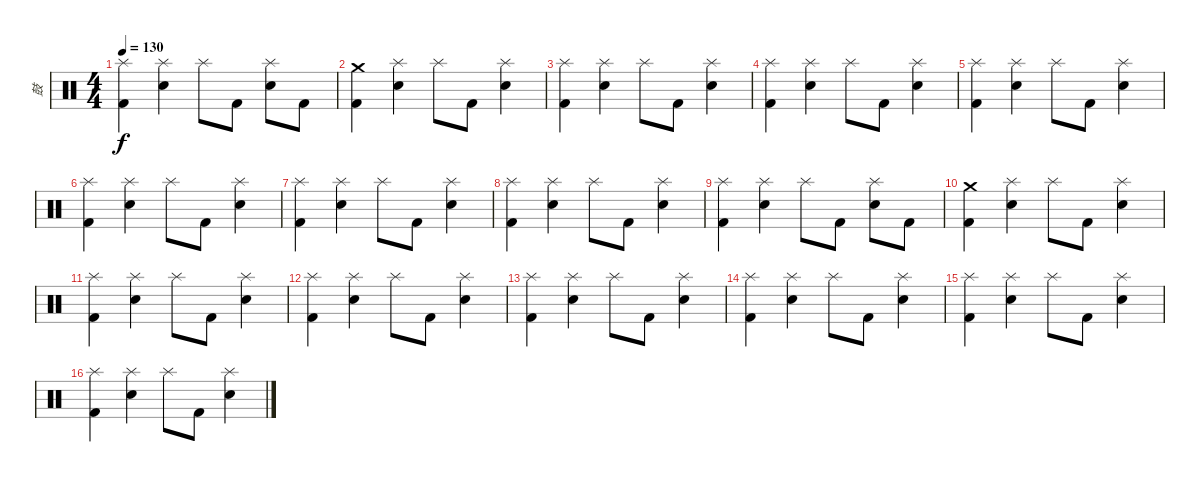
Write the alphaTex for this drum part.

\track ("鼓" "鼓") {instrument percussion}
\staff {score}
\articulation defaults
\ts (4 4)
\tempo 130
\clef neutral
\ks c
("Splash (hit)" "Kick (hit) 2").4{dy f} ("Splash (hit)" "Electric Snare (hit)").4 "Splash (hit)".8 "Kick (hit) 2".8 ("Splash (hit)" "Electric Snare (hit)").8 "Kick (hit) 2".8 |
("Crash medium (hit)" "Kick (hit) 2").4 ("Splash (hit)" "Electric Snare (hit)").4 "Splash (hit)".8 "Kick (hit) 2".8 ("Splash (hit)" "Electric Snare (hit)").4 |
("Splash (hit)" "Kick (hit) 2").4 ("Splash (hit)" "Electric Snare (hit)").4 "Splash (hit)".8 "Kick (hit) 2".8 ("Splash (hit)" "Electric Snare (hit)").4 |
("Splash (hit)" "Kick (hit) 2").4 ("Splash (hit)" "Electric Snare (hit)").4 "Splash (hit)".8 "Kick (hit) 2".8 ("Splash (hit)" "Electric Snare (hit)").4 |
("Splash (hit)" "Kick (hit) 2").4 ("Splash (hit)" "Electric Snare (hit)").4 "Splash (hit)".8 "Kick (hit) 2".8 ("Splash (hit)" "Electric Snare (hit)").4 |
("Splash (hit)" "Kick (hit) 2").4 ("Splash (hit)" "Electric Snare (hit)").4 "Splash (hit)".8 "Kick (hit) 2".8 ("Splash (hit)" "Electric Snare (hit)").4 |
("Splash (hit)" "Kick (hit) 2").4 ("Splash (hit)" "Electric Snare (hit)").4 "Splash (hit)".8 "Kick (hit) 2".8 ("Splash (hit)" "Electric Snare (hit)").4 |
("Splash (hit)" "Kick (hit) 2").4 ("Splash (hit)" "Electric Snare (hit)").4 "Splash (hit)".8 "Kick (hit) 2".8 ("Splash (hit)" "Electric Snare (hit)").4 |
("Splash (hit)" "Kick (hit) 2").4 ("Splash (hit)" "Electric Snare (hit)").4 "Splash (hit)".8 "Kick (hit) 2".8 ("Splash (hit)" "Electric Snare (hit)").8 "Kick (hit) 2".8 |
("Crash medium (hit)" "Kick (hit) 2").4 ("Splash (hit)" "Electric Snare (hit)").4 "Splash (hit)".8 "Kick (hit) 2".8 ("Splash (hit)" "Electric Snare (hit)").4 |
("Splash (hit)" "Kick (hit) 2").4 ("Splash (hit)" "Electric Snare (hit)").4 "Splash (hit)".8 "Kick (hit) 2".8 ("Splash (hit)" "Electric Snare (hit)").4 |
("Splash (hit)" "Kick (hit) 2").4 ("Splash (hit)" "Electric Snare (hit)").4 "Splash (hit)".8 "Kick (hit) 2".8 ("Splash (hit)" "Electric Snare (hit)").4 |
("Splash (hit)" "Kick (hit) 2").4 ("Splash (hit)" "Electric Snare (hit)").4 "Splash (hit)".8 "Kick (hit) 2".8 ("Splash (hit)" "Electric Snare (hit)").4 |
("Splash (hit)" "Kick (hit) 2").4 ("Splash (hit)" "Electric Snare (hit)").4 "Splash (hit)".8 "Kick (hit) 2".8 ("Splash (hit)" "Electric Snare (hit)").4 |
("Splash (hit)" "Kick (hit) 2").4 ("Splash (hit)" "Electric Snare (hit)").4 "Splash (hit)".8 "Kick (hit) 2".8 ("Splash (hit)" "Electric Snare (hit)").4 |
("Splash (hit)" "Kick (hit) 2").4 ("Splash (hit)" "Electric Snare (hit)").4 "Splash (hit)".8 "Kick (hit) 2".8 ("Splash (hit)" "Electric Snare (hit)").4
